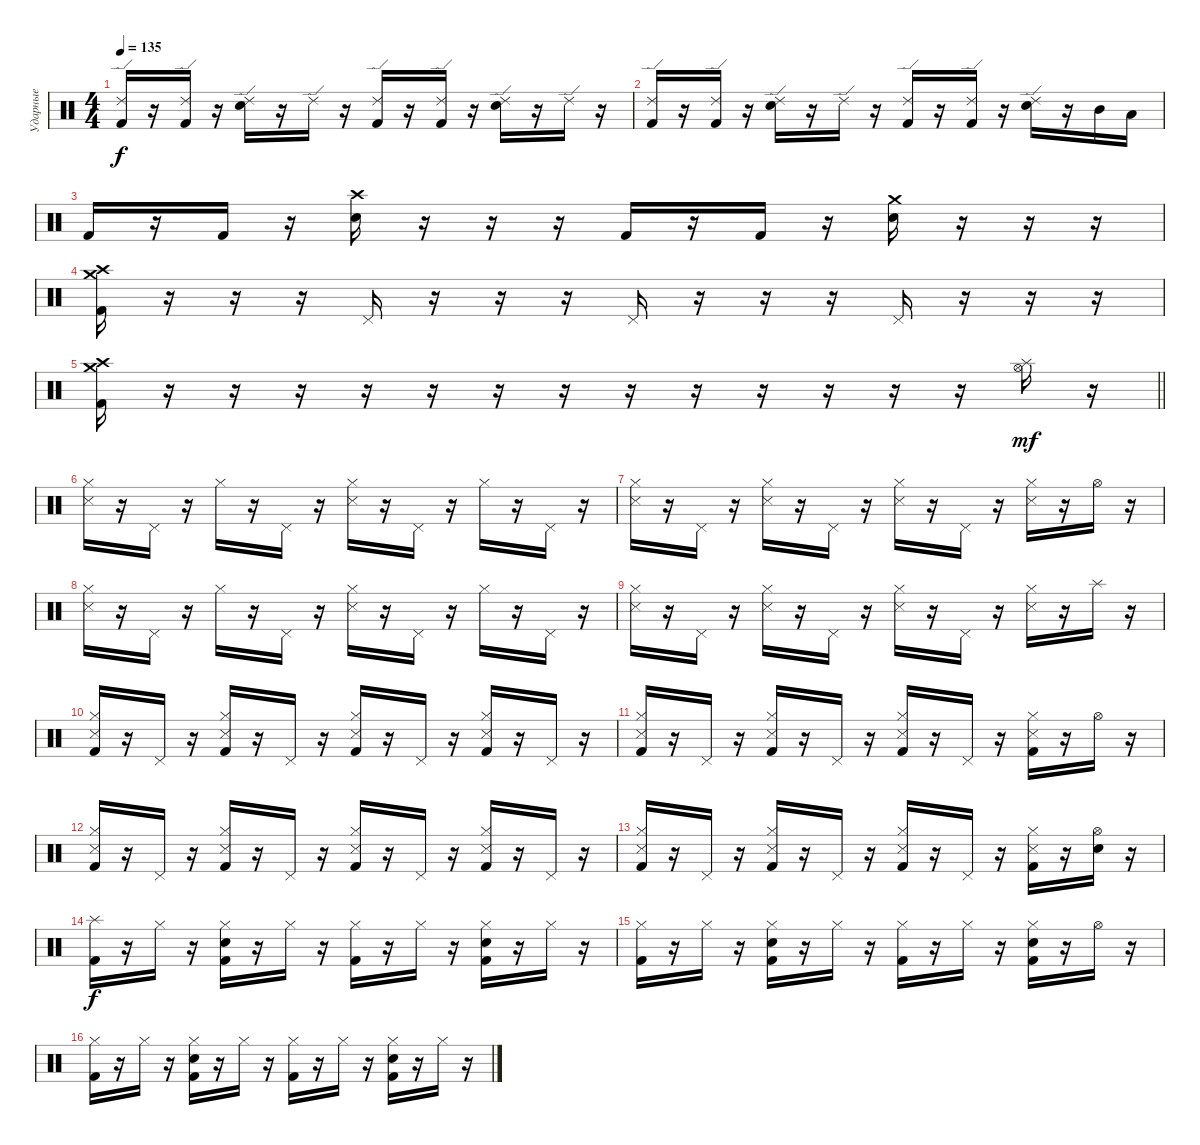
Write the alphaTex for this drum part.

\track ("Ударные" "Ударные") {instrument percussion}
\staff {score}
\articulation defaults
\ts (4 4)
\tempo 135
\clef neutral
\ks c
("Ride (edge) 2" "Kick (hit) 2").16{dy f} r.16 ("Ride (edge) 2" "Kick (hit) 2").16 r.16 ("Ride (edge) 2" "Electric Snare (hit)").16 r.16 "Ride (edge) 2".16 r.16 ("Ride (edge) 2" "Kick (hit) 2").16 r.16 ("Ride (edge) 2" "Kick (hit) 2").16 r.16 ("Ride (edge) 2" "Electric Snare (hit)").16 r.16 "Ride (edge) 2".16 r.16 |
("Ride (edge) 2" "Kick (hit) 2").16 r.16 ("Ride (edge) 2" "Kick (hit) 2").16 r.16 ("Ride (edge) 2" "Electric Snare (hit)").16 r.16 "Ride (edge) 2".16 r.16 ("Ride (edge) 2" "Kick (hit) 2").16 r.16 ("Ride (edge) 2" "Kick (hit) 2").16 r.16 ("Ride (edge) 2" "Electric Snare (hit)").16 r.16 "Mid Tom (hit)".16 "Low Tom (hit)".16 |
"Kick (hit) 2".16 r.16 "Kick (hit) 2".16 r.16 ("Crash high (hit)" "Electric Snare (hit)").16 r.16 r.16 r.16 "Kick (hit) 2".16 r.16 "Kick (hit) 2".16 r.16 ("Crash medium (hit)" "Electric Snare (hit)").16 r.16 r.16 r.16 |
("Crash medium (hit)" "Crash high (hit)" "Kick (hit) 2").16 r.16 r.16 r.16 "Pedal Hi-Hat (hit)".16 r.16 r.16 r.16 "Pedal Hi-Hat (hit)".16 r.16 r.16 r.16 "Pedal Hi-Hat (hit)".16 r.16 r.16 r.16 |
\barLineRight lightlight
("Crash medium (hit)" "Crash high (hit)" "Kick (hit) 2").16 r.16 r.16 r.16 r.16 r.16 r.16 r.16 r.16 r.16 r.16 r.16 r.16 r.16 ("Splash (hit)" "Hi-Hat (open)").16{dy mf} r.16 |
("Hi-Hat (closed)" "Snare (side stick) 3").16 r.16 "Pedal Hi-Hat (hit)".16 r.16 "Hi-Hat (closed)".16 r.16 "Pedal Hi-Hat (hit)".16 r.16 ("Hi-Hat (closed)" "Snare (side stick) 3").16 r.16 "Pedal Hi-Hat (hit)".16 r.16 "Hi-Hat (closed)".16 r.16 "Pedal Hi-Hat (hit)".16 r.16 |
("Hi-Hat (closed)" "Snare (side stick) 3").16 r.16 "Pedal Hi-Hat (hit)".16 r.16 ("Hi-Hat (closed)" "Snare (side stick) 3").16 r.16 "Pedal Hi-Hat (hit)".16 r.16 ("Hi-Hat (closed)" "Snare (side stick) 3").16 r.16 "Pedal Hi-Hat (hit)".16 r.16 ("Hi-Hat (closed)" "Snare (side stick) 3").16 r.16 "Hi-Hat (open)".16 r.16 |
("Hi-Hat (closed)" "Snare (side stick) 3").16 r.16 "Pedal Hi-Hat (hit)".16 r.16 "Hi-Hat (closed)".16 r.16 "Pedal Hi-Hat (hit)".16 r.16 ("Hi-Hat (closed)" "Snare (side stick) 3").16 r.16 "Pedal Hi-Hat (hit)".16 r.16 "Hi-Hat (closed)".16 r.16 "Pedal Hi-Hat (hit)".16 r.16 |
("Hi-Hat (closed)" "Snare (side stick) 3").16 r.16 "Pedal Hi-Hat (hit)".16 r.16 ("Hi-Hat (closed)" "Snare (side stick) 3").16 r.16 "Pedal Hi-Hat (hit)".16 r.16 ("Hi-Hat (closed)" "Snare (side stick) 3").16 r.16 "Pedal Hi-Hat (hit)".16 r.16 ("Hi-Hat (closed)" "Snare (side stick) 3").16 r.16 "Splash (hit)".16 r.16 |
("Hi-Hat (closed)" "Snare (side stick) 3" "Kick (hit) 2").16 r.16 "Pedal Hi-Hat (hit)".16 r.16 ("Hi-Hat (closed)" "Snare (side stick) 3" "Kick (hit) 2").16 r.16 "Pedal Hi-Hat (hit)".16 r.16 ("Hi-Hat (closed)" "Snare (side stick) 3" "Kick (hit) 2").16 r.16 "Pedal Hi-Hat (hit)".16 r.16 ("Hi-Hat (closed)" "Snare (side stick) 3" "Kick (hit) 2").16 r.16 "Pedal Hi-Hat (hit)".16 r.16 |
("Hi-Hat (closed)" "Snare (side stick) 3" "Kick (hit) 2").16 r.16 "Pedal Hi-Hat (hit)".16 r.16 ("Hi-Hat (closed)" "Snare (side stick) 3" "Kick (hit) 2").16 r.16 "Pedal Hi-Hat (hit)".16 r.16 ("Hi-Hat (closed)" "Snare (side stick) 3" "Kick (hit) 2").16 r.16 "Pedal Hi-Hat (hit)".16 r.16 ("Hi-Hat (closed)" "Snare (side stick) 3" "Kick (hit) 2").16 r.16 "Hi-Hat (open)".16 r.16 |
("Hi-Hat (closed)" "Snare (side stick) 3" "Kick (hit) 2").16 r.16 "Pedal Hi-Hat (hit)".16 r.16 ("Hi-Hat (closed)" "Snare (side stick) 3" "Kick (hit) 2").16 r.16 "Pedal Hi-Hat (hit)".16 r.16 ("Hi-Hat (closed)" "Snare (side stick) 3" "Kick (hit) 2").16 r.16 "Pedal Hi-Hat (hit)".16 r.16 ("Hi-Hat (closed)" "Snare (side stick) 3" "Kick (hit) 2").16 r.16 "Pedal Hi-Hat (hit)".16 r.16 |
("Hi-Hat (closed)" "Snare (side stick) 3" "Kick (hit) 2").16 r.16 "Pedal Hi-Hat (hit)".16 r.16 ("Hi-Hat (closed)" "Snare (side stick) 3" "Kick (hit) 2").16 r.16 "Pedal Hi-Hat (hit)".16 r.16 ("Hi-Hat (closed)" "Snare (side stick) 3" "Kick (hit) 2").16 r.16 "Pedal Hi-Hat (hit)".16 r.16 ("Hi-Hat (closed)" "Snare (side stick) 3" "Kick (hit) 2").16 r.16 ("Hi-Hat (open)" "Electric Snare (hit)").16 r.16 |
("Splash (hit)" "Kick (hit) 2").16{dy f} r.16 "Hi-Hat (closed)".16 r.16 ("Hi-Hat (closed)" "Electric Snare (hit)" "Kick (hit) 2").16 r.16 "Hi-Hat (closed)".16 r.16 ("Hi-Hat (closed)" "Kick (hit) 2").16 r.16 "Hi-Hat (closed)".16 r.16 ("Hi-Hat (closed)" "Electric Snare (hit)" "Kick (hit) 2").16 r.16 "Hi-Hat (closed)".16 r.16 |
("Hi-Hat (closed)" "Kick (hit) 2").16 r.16 "Hi-Hat (closed)".16 r.16 ("Hi-Hat (closed)" "Electric Snare (hit)" "Kick (hit) 2").16 r.16 "Hi-Hat (closed)".16 r.16 ("Hi-Hat (closed)" "Kick (hit) 2").16 r.16 "Hi-Hat (closed)".16 r.16 ("Hi-Hat (closed)" "Electric Snare (hit)" "Kick (hit) 2").16 r.16 "Hi-Hat (open)".16 r.16 |
("Hi-Hat (closed)" "Kick (hit) 2").16 r.16 "Hi-Hat (closed)".16 r.16 ("Hi-Hat (closed)" "Electric Snare (hit)" "Kick (hit) 2").16 r.16 "Hi-Hat (closed)".16 r.16 ("Hi-Hat (closed)" "Kick (hit) 2").16 r.16 "Hi-Hat (closed)".16 r.16 ("Hi-Hat (closed)" "Electric Snare (hit)" "Kick (hit) 2").16 r.16 "Hi-Hat (closed)".16 r.16
